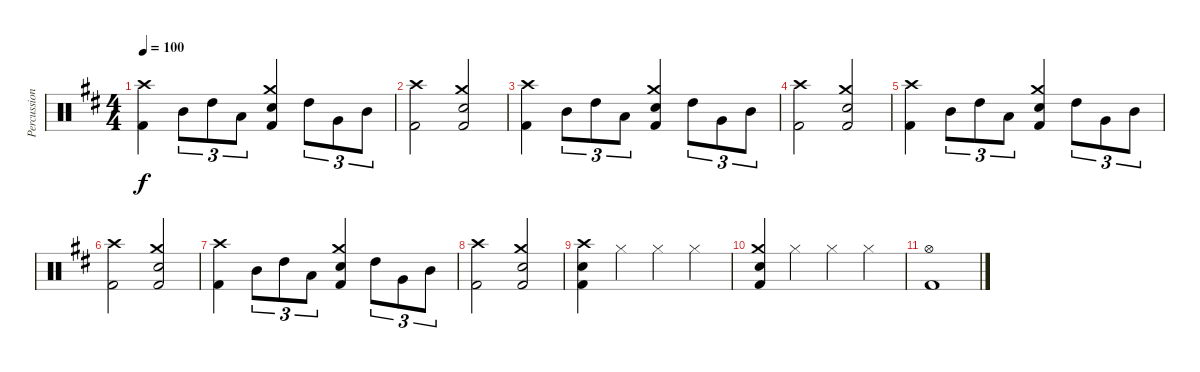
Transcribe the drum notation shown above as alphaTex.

\track ("Percussion" "Percussion") {instrument percussion}
\staff {score}
\articulation defaults
\ts (4 4)
\tempo 100
\clef neutral
\ks d
("Crash high (hit)" "Kick (hit) 2").4{dy f} "Mid Tom (hit)".8{tu (3 2)} "High Tom (hit)".8{tu (3 2)} "Low Floor Tom (hit)".8{tu (3 2)} ("Crash medium (hit)" "Snare (hit) 2" "Kick (hit) 2").4 "High Tom (hit)".8{tu (3 2)} "Very Low Tom (hit)".8{tu (3 2)} "Mid Tom (hit)".8{tu (3 2)} |
("Crash high (hit)" "Kick (hit) 2").2 ("Crash medium (hit)" "Snare (hit) 2" "Kick (hit) 2").2 |
("Crash high (hit)" "Kick (hit) 2").4 "Mid Tom (hit)".8{tu (3 2)} "High Tom (hit)".8{tu (3 2)} "Low Floor Tom (hit)".8{tu (3 2)} ("Crash medium (hit)" "Snare (hit) 2" "Kick (hit) 2").4 "High Tom (hit)".8{tu (3 2)} "Very Low Tom (hit)".8{tu (3 2)} "Mid Tom (hit)".8{tu (3 2)} |
("Crash high (hit)" "Kick (hit) 2").2 ("Crash medium (hit)" "Snare (hit) 2" "Kick (hit) 2").2 |
("Crash high (hit)" "Kick (hit) 2").4 "Mid Tom (hit)".8{tu (3 2)} "High Tom (hit)".8{tu (3 2)} "Low Floor Tom (hit)".8{tu (3 2)} ("Crash medium (hit)" "Snare (hit) 2" "Kick (hit) 2").4 "High Tom (hit)".8{tu (3 2)} "Very Low Tom (hit)".8{tu (3 2)} "Mid Tom (hit)".8{tu (3 2)} |
("Crash high (hit)" "Kick (hit) 2").2 ("Crash medium (hit)" "Snare (hit) 2" "Kick (hit) 2").2 |
("Crash high (hit)" "Kick (hit) 2").4 "Mid Tom (hit)".8{tu (3 2)} "High Tom (hit)".8{tu (3 2)} "Low Floor Tom (hit)".8{tu (3 2)} ("Crash medium (hit)" "Snare (hit) 2" "Kick (hit) 2").4 "High Tom (hit)".8{tu (3 2)} "Very Low Tom (hit)".8{tu (3 2)} "Mid Tom (hit)".8{tu (3 2)} |
("Crash high (hit)" "Kick (hit) 2").2 ("Crash medium (hit)" "Snare (hit) 2" "Kick (hit) 2").2 |
("Crash high (hit)" "Snare (hit) 2" "Kick (hit) 2").4 "Hi-Hat (closed)".4 "Hi-Hat (closed)".4 "Hi-Hat (closed)".4 |
("Crash medium (hit)" "Snare (hit) 2" "Kick (hit) 2").4 "Hi-Hat (closed)".4 "Hi-Hat (closed)".4 "Hi-Hat (closed)".4 |
("Hi-Hat (open)" "Kick (hit) 2").1
